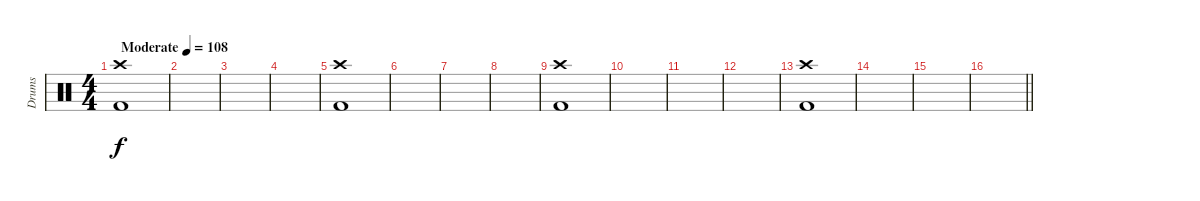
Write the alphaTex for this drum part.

\track ("Drums" "Drums") {instrument percussion}
\staff {score}
\articulation defaults
\ts (4 4)
\section ("" "")
\tempo (108 "Moderate")
\clef neutral
\ks c
("Crash high (hit)" "Kick (hit) 2").1{dy f} |
|
|
|
("Crash high (hit)" "Kick (hit) 2").1 |
|
|
|
("Crash high (hit)" "Kick (hit) 2").1 |
|
|
|
("Crash high (hit)" "Kick (hit) 2").1 |
|
|
\barLineRight lightlight
